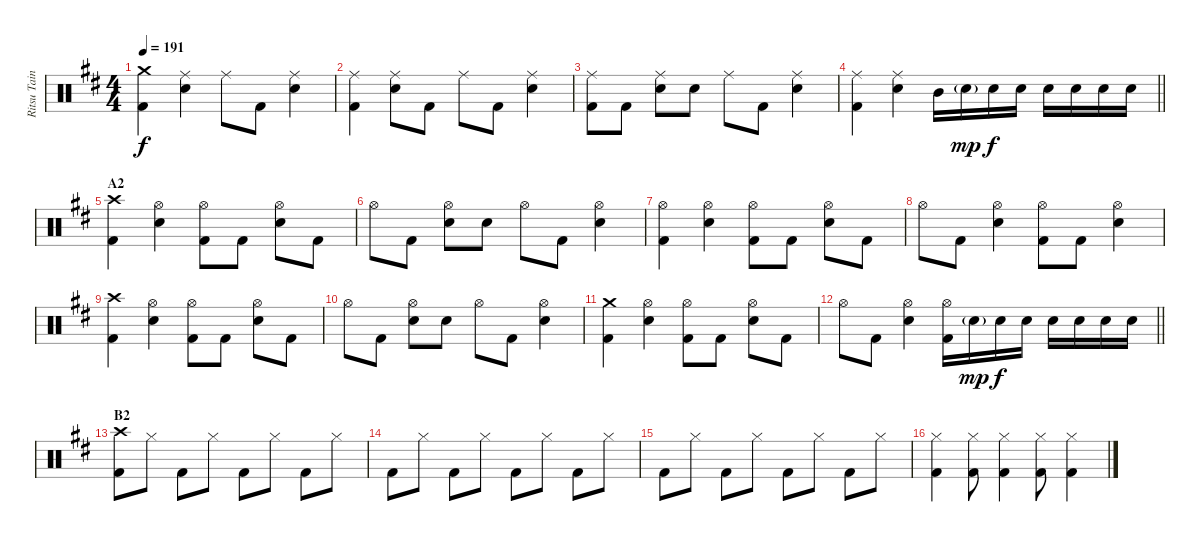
\track ("Ritsu Tainaka" "Ritsu Tain") {instrument percussion}
\staff {score}
\articulation defaults
\ts (4 4)
\tempo 191
\clef neutral
\ks d
("Crash medium (hit)" "Kick (hit) 2").4{dy f} ("Ride (middle)" "Electric Snare (hit)").4 "Ride (middle)".8 "Kick (hit) 2".8 ("Ride (middle)" "Electric Snare (hit)").4 |
("Ride (middle)" "Kick (hit) 2").4 ("Ride (middle)" "Electric Snare (hit)").8 "Kick (hit) 2".8 "Ride (middle)".8 "Kick (hit) 2".8 ("Ride (middle)" "Electric Snare (hit)").4 |
("Ride (middle)" "Kick (hit) 2").8 "Kick (hit) 2".8 ("Ride (middle)" "Electric Snare (hit)").8 "Electric Snare (hit)".8 "Ride (middle)".8 "Kick (hit) 2".8 ("Ride (middle)" "Electric Snare (hit)").4 |
\barLineRight lightlight
("Ride (middle)" "Kick (hit) 2").4 ("Ride (middle)" "Electric Snare (hit)").4 "Mid Tom (hit)".16 "Electric Snare (hit)"{g}.16{dy mp} "Electric Snare (hit)".16{dy f} "Electric Snare (hit)".16 "Electric Snare (hit)".16 "Electric Snare (hit)".16 "Electric Snare (hit)".16 "Electric Snare (hit)".16 |
\section ("" "A2")
("Crash high (hit)" "Kick (hit) 2").4 ("Hi-Hat (open)" "Electric Snare (hit)").4 ("Hi-Hat (open)" "Kick (hit) 2").8 "Kick (hit) 2".8 ("Hi-Hat (open)" "Electric Snare (hit)").8 "Kick (hit) 2".8 |
"Hi-Hat (open)".8 "Kick (hit) 2".8 ("Hi-Hat (open)" "Electric Snare (hit)").8 "Electric Snare (hit)".8 "Hi-Hat (open)".8 "Kick (hit) 2".8 ("Hi-Hat (open)" "Electric Snare (hit)").4 |
("Hi-Hat (open)" "Kick (hit) 2").4 ("Hi-Hat (open)" "Electric Snare (hit)").4 ("Hi-Hat (open)" "Kick (hit) 2").8 "Kick (hit) 2".8 ("Hi-Hat (open)" "Electric Snare (hit)").8 "Kick (hit) 2".8 |
"Hi-Hat (open)".8 "Kick (hit) 2".8 ("Hi-Hat (open)" "Electric Snare (hit)").4 ("Hi-Hat (open)" "Kick (hit) 2").8 "Kick (hit) 2".8 ("Hi-Hat (open)" "Electric Snare (hit)").4 |
("Crash high (hit)" "Kick (hit) 2").4 ("Hi-Hat (open)" "Electric Snare (hit)").4 ("Hi-Hat (open)" "Kick (hit) 2").8 "Kick (hit) 2".8 ("Hi-Hat (open)" "Electric Snare (hit)").8 "Kick (hit) 2".8 |
"Hi-Hat (open)".8 "Kick (hit) 2".8 ("Hi-Hat (open)" "Electric Snare (hit)").8 "Electric Snare (hit)".8 "Hi-Hat (open)".8 "Kick (hit) 2".8 ("Hi-Hat (open)" "Electric Snare (hit)").4 |
("Crash medium (hit)" "Kick (hit) 2").4 ("Hi-Hat (open)" "Electric Snare (hit)").4 ("Hi-Hat (open)" "Kick (hit) 2").8 "Kick (hit) 2".8 ("Hi-Hat (open)" "Electric Snare (hit)").8 "Kick (hit) 2".8 |
\barLineRight lightlight "Hi-Hat (open)".8 "Kick (hit) 2".8
("Hi-Hat (open)" "Electric Snare (hit)").4 ("Hi-Hat (open)" "Kick (hit) 2").16 "Electric Snare (hit)"{g}.16{dy mp} "Electric Snare (hit)".16{dy f} "Electric Snare (hit)".16 "Electric Snare (hit)".16 "Electric Snare (hit)".16 "Electric Snare (hit)".16 "Electric Snare (hit)".16 |
\section ("" "B2")
("Crash high (hit)" "Kick (hit) 2").8 "Hi-Hat (closed)".8 "Kick (hit) 2".8 "Hi-Hat (closed)".8 "Kick (hit) 2".8 "Hi-Hat (closed)".8 "Kick (hit) 2".8 "Hi-Hat (closed)".8 |
"Kick (hit) 2".8 "Hi-Hat (closed)".8 "Kick (hit) 2".8 "Hi-Hat (closed)".8 "Kick (hit) 2".8 "Hi-Hat (closed)".8 "Kick (hit) 2".8 "Hi-Hat (closed)".8 |
"Kick (hit) 2".8 "Hi-Hat (closed)".8 "Kick (hit) 2".8 "Hi-Hat (closed)".8 "Kick (hit) 2".8 "Hi-Hat (closed)".8 "Kick (hit) 2".8 "Hi-Hat (closed)".8 |
("Hi-Hat (closed)" "Kick (hit) 2").4 ("Hi-Hat (closed)" "Kick (hit) 2").8 ("Hi-Hat (closed)" "Kick (hit) 2").4 ("Hi-Hat (closed)" "Kick (hit) 2").8 ("Hi-Hat (closed)" "Kick (hit) 2").4
